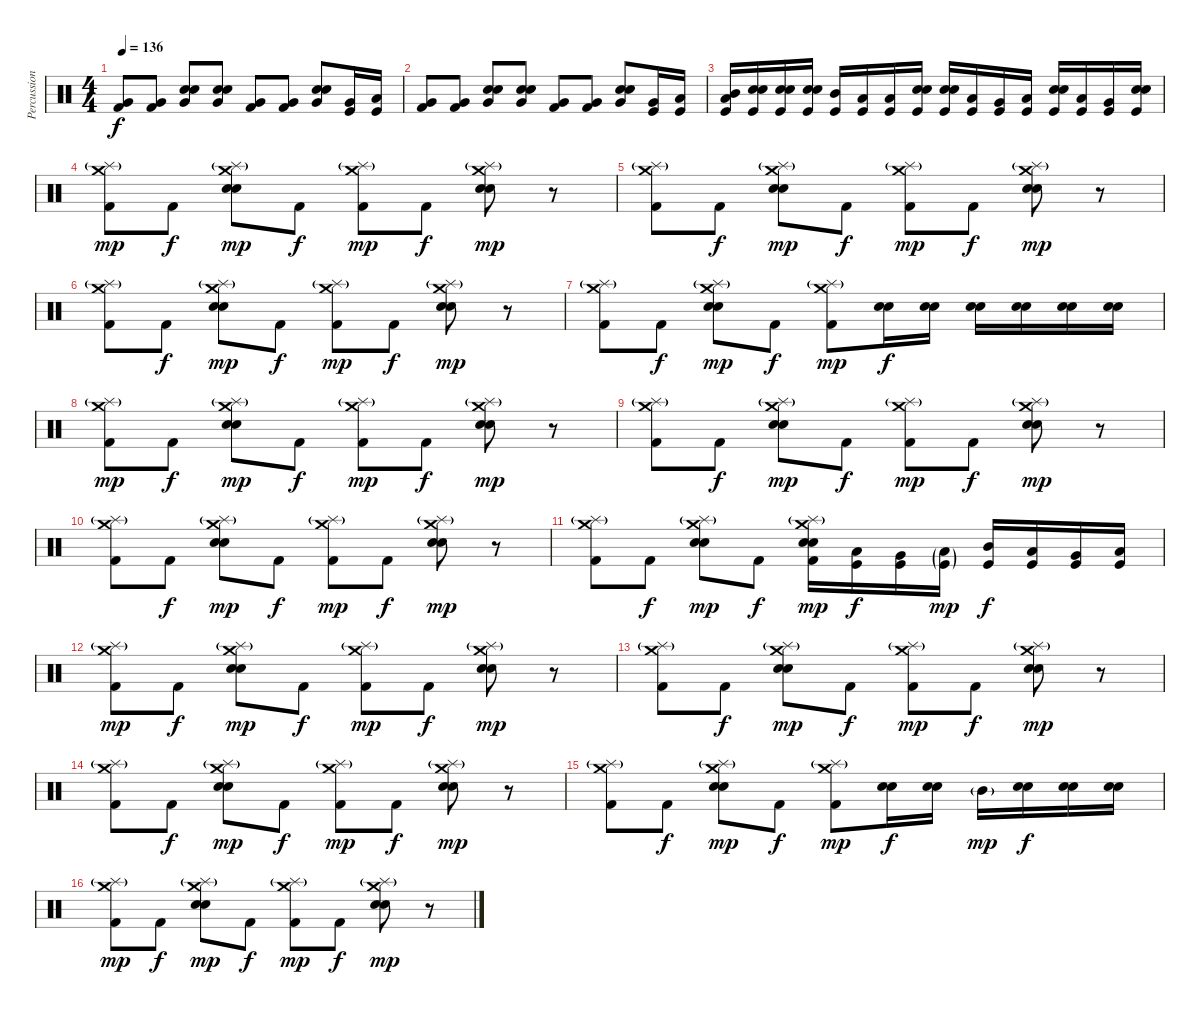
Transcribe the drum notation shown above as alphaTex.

\track ("Percussion" "Percussion") {instrument percussion}
\staff {score}
\articulation defaults
\ts (4 4)
\tempo 136
\clef neutral
\ks c
("Very Low Tom (hit)" "Kick (hit) 2").8{dy f} ("Very Low Tom (hit)" "Kick (hit) 2").8 ("Electric Snare (hit)" "Snare (hit) 2" "Very Low Tom (hit)").8 ("Electric Snare (hit)" "Snare (hit) 2" "Very Low Tom (hit)").8 ("Very Low Tom (hit)" "Kick (hit) 2").8 ("Very Low Tom (hit)" "Kick (hit) 2").8 ("Snare (hit) 2" "Electric Snare (hit)" "Very Low Tom (hit)").8 ("Very Low Tom (hit)" "Kick (hit)").16 ("Low Floor Tom (hit)" "Kick (hit)").16 |
("Very Low Tom (hit)" "Kick (hit) 2").8 ("Very Low Tom (hit)" "Kick (hit) 2").8 ("Electric Snare (hit)" "Snare (hit) 2" "Very Low Tom (hit)").8 ("Electric Snare (hit)" "Snare (hit) 2" "Very Low Tom (hit)").8 ("Very Low Tom (hit)" "Kick (hit) 2").8 ("Very Low Tom (hit)" "Kick (hit) 2").8 ("Snare (hit) 2" "Electric Snare (hit)" "Very Low Tom (hit)").8 ("Very Low Tom (hit)" "Kick (hit)").16 ("Low Floor Tom (hit)" "Kick (hit)").16 |
("Low Tom (hit)" "Mid Tom (hit)" "Kick (hit)").16 ("Snare (hit) 2" "Electric Snare (hit)" "Kick (hit)").16 ("Snare (hit) 2" "Electric Snare (hit)" "Kick (hit)").16 ("Snare (hit) 2" "Electric Snare (hit)" "Kick (hit)").16 ("Mid Tom (hit)" "Kick (hit)").16 ("Low Tom (hit)" "Kick (hit)").16 ("Low Tom (hit)" "Kick (hit)").16 ("Snare (hit) 2" "Electric Snare (hit)" "Kick (hit)").16 ("Snare (hit) 2" "Electric Snare (hit)" "Kick (hit)").16 ("Low Tom (hit)" "Kick (hit)").16 ("Very Low Tom (hit)" "Kick (hit)").16 ("Low Floor Tom (hit)" "Kick (hit)").16 ("Snare (hit) 2" "Electric Snare (hit)" "Kick (hit)").16 ("Low Tom (hit)" "Kick (hit)").16 ("Very Low Tom (hit)" "Kick (hit)").16 ("Snare (hit) 2" "Electric Snare (hit)" "Kick (hit)").16 |
("Splash (hit)"{g} "Crash medium (hit)" "Kick (hit) 2").8{dy mp} "Kick (hit) 2".8{dy f} ("Splash (hit)"{g} "Crash medium (hit)" "Snare (hit) 2" "Electric Snare (hit)").8{dy mp} "Kick (hit) 2".8{dy f} ("Splash (hit)"{g} "Crash medium (hit)" "Kick (hit) 2").8{dy mp} "Kick (hit) 2".8{dy f} ("Splash (hit)"{g} "Crash medium (hit)" "Snare (hit) 2" "Electric Snare (hit)").8{dy mp} r.8 |
("Splash (hit)"{g} "Crash medium (hit)" "Kick (hit) 2").8 "Kick (hit) 2".8{dy f} ("Splash (hit)"{g} "Crash medium (hit)" "Snare (hit) 2" "Electric Snare (hit)").8{dy mp} "Kick (hit) 2".8{dy f} ("Splash (hit)"{g} "Crash medium (hit)" "Kick (hit) 2").8{dy mp} "Kick (hit) 2".8{dy f} ("Splash (hit)"{g} "Crash medium (hit)" "Snare (hit) 2" "Electric Snare (hit)").8{dy mp} r.8 |
("Splash (hit)"{g} "Crash medium (hit)" "Kick (hit) 2").8 "Kick (hit) 2".8{dy f} ("Splash (hit)"{g} "Crash medium (hit)" "Snare (hit) 2" "Electric Snare (hit)").8{dy mp} "Kick (hit) 2".8{dy f} ("Splash (hit)"{g} "Crash medium (hit)" "Kick (hit) 2").8{dy mp} "Kick (hit) 2".8{dy f} ("Splash (hit)"{g} "Crash medium (hit)" "Snare (hit) 2" "Electric Snare (hit)").8{dy mp} r.8 |
("Splash (hit)"{g} "Crash medium (hit)" "Kick (hit) 2").8 "Kick (hit) 2".8{dy f} ("Splash (hit)"{g} "Crash medium (hit)" "Snare (hit) 2" "Electric Snare (hit)").8{dy mp} "Kick (hit) 2".8{dy f} ("Splash (hit)"{g} "Crash medium (hit)" "Kick (hit) 2").8{dy mp} ("Snare (hit) 2" "Electric Snare (hit)").16{dy f} ("Snare (hit) 2" "Electric Snare (hit)").16 ("Snare (hit) 2" "Electric Snare (hit)").16 ("Snare (hit) 2" "Electric Snare (hit)").16 ("Snare (hit) 2" "Electric Snare (hit)").16 ("Snare (hit) 2" "Electric Snare (hit)").16 |
("Splash (hit)"{g} "Crash medium (hit)" "Kick (hit) 2").8{dy mp} "Kick (hit) 2".8{dy f} ("Splash (hit)"{g} "Crash medium (hit)" "Snare (hit) 2" "Electric Snare (hit)").8{dy mp} "Kick (hit) 2".8{dy f} ("Splash (hit)"{g} "Crash medium (hit)" "Kick (hit) 2").8{dy mp} "Kick (hit) 2".8{dy f} ("Splash (hit)"{g} "Crash medium (hit)" "Snare (hit) 2" "Electric Snare (hit)").8{dy mp} r.8 |
("Splash (hit)"{g} "Crash medium (hit)" "Kick (hit) 2").8 "Kick (hit) 2".8{dy f} ("Splash (hit)"{g} "Crash medium (hit)" "Snare (hit) 2" "Electric Snare (hit)").8{dy mp} "Kick (hit) 2".8{dy f} ("Splash (hit)"{g} "Crash medium (hit)" "Kick (hit) 2").8{dy mp} "Kick (hit) 2".8{dy f} ("Splash (hit)"{g} "Crash medium (hit)" "Snare (hit) 2" "Electric Snare (hit)").8{dy mp} r.8 |
("Splash (hit)"{g} "Crash medium (hit)" "Kick (hit) 2").8 "Kick (hit) 2".8{dy f} ("Splash (hit)"{g} "Crash medium (hit)" "Snare (hit) 2" "Electric Snare (hit)").8{dy mp} "Kick (hit) 2".8{dy f} ("Splash (hit)"{g} "Crash medium (hit)" "Kick (hit) 2").8{dy mp} "Kick (hit) 2".8{dy f} ("Splash (hit)"{g} "Crash medium (hit)" "Snare (hit) 2" "Electric Snare (hit)").8{dy mp} r.8 |
("Splash (hit)"{g} "Crash medium (hit)" "Kick (hit) 2").8 "Kick (hit) 2".8{dy f} ("Splash (hit)"{g} "Crash medium (hit)" "Snare (hit) 2" "Electric Snare (hit)").8{dy mp} "Kick (hit) 2".8{dy f} ("Splash (hit)"{g} "Crash medium (hit)" "Snare (hit) 2" "Electric Snare (hit)" "Kick (hit) 2").16{dy mp} ("Low Tom (hit)" "Kick (hit)").16{dy f} ("Very Low Tom (hit)" "Kick (hit)").16 ("Low Tom (hit)"{g} "Kick (hit)"{g}).16{dy mp} ("Mid Tom (hit)" "Kick (hit)").16{dy f} ("Low Tom (hit)" "Kick (hit)").16 ("Very Low Tom (hit)" "Kick (hit)").16 ("Low Floor Tom (hit)" "Kick (hit)").16 |
("Splash (hit)"{g} "Crash medium (hit)" "Kick (hit) 2").8{dy mp} "Kick (hit) 2".8{dy f} ("Splash (hit)"{g} "Crash medium (hit)" "Snare (hit) 2" "Electric Snare (hit)").8{dy mp} "Kick (hit) 2".8{dy f} ("Splash (hit)"{g} "Crash medium (hit)" "Kick (hit) 2").8{dy mp} "Kick (hit) 2".8{dy f} ("Splash (hit)"{g} "Crash medium (hit)" "Snare (hit) 2" "Electric Snare (hit)").8{dy mp} r.8 |
("Splash (hit)"{g} "Crash medium (hit)" "Kick (hit) 2").8 "Kick (hit) 2".8{dy f} ("Splash (hit)"{g} "Crash medium (hit)" "Snare (hit) 2" "Electric Snare (hit)").8{dy mp} "Kick (hit) 2".8{dy f} ("Splash (hit)"{g} "Crash medium (hit)" "Kick (hit) 2").8{dy mp} "Kick (hit) 2".8{dy f} ("Splash (hit)"{g} "Crash medium (hit)" "Snare (hit) 2" "Electric Snare (hit)").8{dy mp} r.8 |
("Splash (hit)"{g} "Crash medium (hit)" "Kick (hit) 2").8 "Kick (hit) 2".8{dy f} ("Splash (hit)"{g} "Crash medium (hit)" "Snare (hit) 2" "Electric Snare (hit)").8{dy mp} "Kick (hit) 2".8{dy f} ("Splash (hit)"{g} "Crash medium (hit)" "Kick (hit) 2").8{dy mp} "Kick (hit) 2".8{dy f} ("Splash (hit)"{g} "Crash medium (hit)" "Snare (hit) 2" "Electric Snare (hit)").8{dy mp} r.8 |
("Splash (hit)"{g} "Crash medium (hit)" "Kick (hit) 2").8 "Kick (hit) 2".8{dy f} ("Splash (hit)"{g} "Crash medium (hit)" "Snare (hit) 2" "Electric Snare (hit)").8{dy mp} "Kick (hit) 2".8{dy f} ("Splash (hit)"{g} "Crash medium (hit)" "Kick (hit) 2").8{dy mp} ("Snare (hit) 2" "Electric Snare (hit)").16{dy f} ("Snare (hit) 2" "Electric Snare (hit)").16 "Mid Tom (hit)"{g}.16{dy mp} ("Snare (hit) 2" "Electric Snare (hit)").16{dy f} ("Snare (hit) 2" "Electric Snare (hit)").16 ("Snare (hit) 2" "Electric Snare (hit)").16 |
("Splash (hit)"{g} "Crash medium (hit)" "Kick (hit) 2").8{dy mp} "Kick (hit) 2".8{dy f} ("Splash (hit)"{g} "Crash medium (hit)" "Snare (hit) 2" "Electric Snare (hit)").8{dy mp} "Kick (hit) 2".8{dy f} ("Splash (hit)"{g} "Crash medium (hit)" "Kick (hit) 2").8{dy mp} "Kick (hit) 2".8{dy f} ("Splash (hit)"{g} "Crash medium (hit)" "Snare (hit) 2" "Electric Snare (hit)").8{dy mp} r.8
